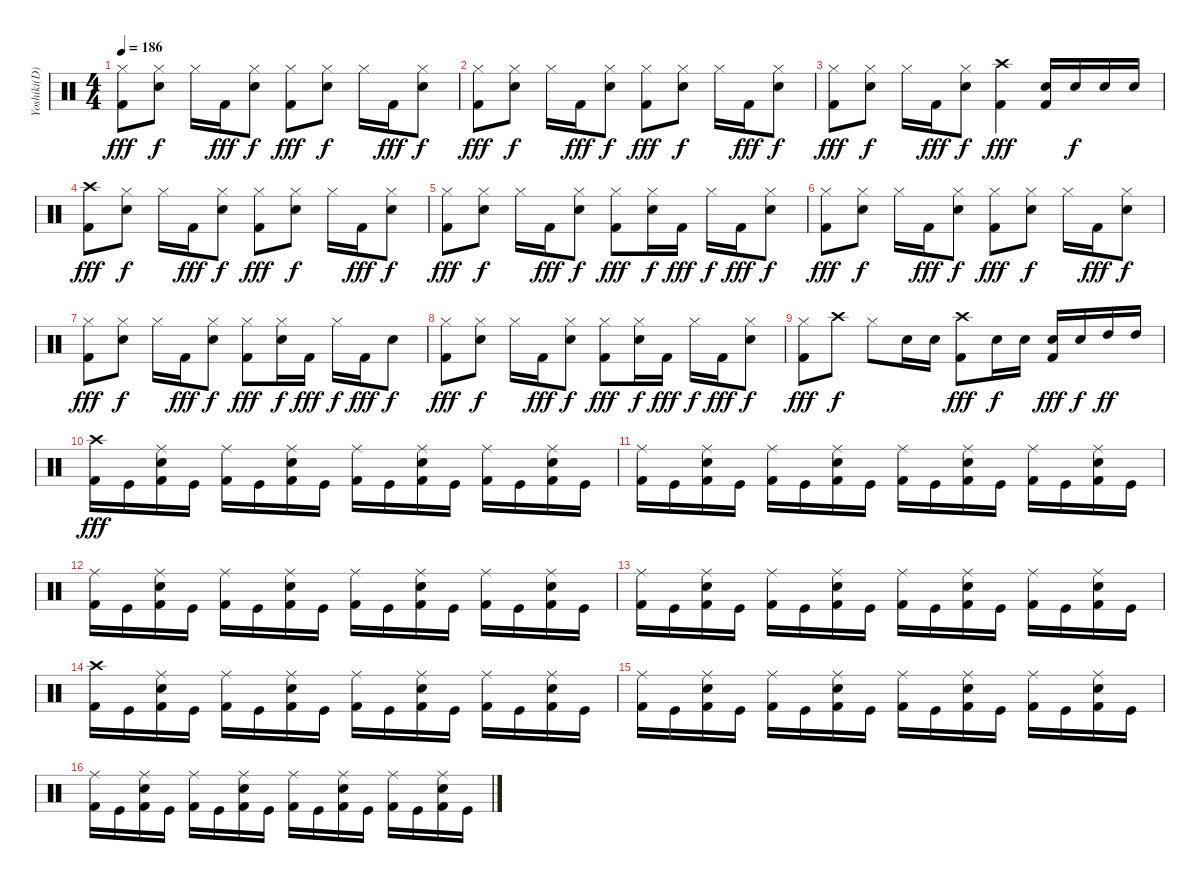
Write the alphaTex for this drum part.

\track ("Yoshiki(D)" "Yoshiki(D)") {instrument percussion}
\staff {score}
\articulation defaults
\ts (4 4)
\tempo 186
\clef neutral
\ks c
("Hi-Hat (closed)" "Kick (hit) 2").8{dy fff} ("Hi-Hat (closed)" "Electric Snare (hit)").8{dy f} "Hi-Hat (closed)".16 "Kick (hit) 2".16{dy fff} ("Hi-Hat (closed)" "Electric Snare (hit)").8{dy f} ("Hi-Hat (closed)" "Kick (hit) 2").8{dy fff} ("Hi-Hat (closed)" "Electric Snare (hit)").8{dy f} "Hi-Hat (closed)".16 "Kick (hit) 2".16{dy fff} ("Hi-Hat (closed)" "Electric Snare (hit)").8{dy f} |
("Hi-Hat (closed)" "Kick (hit) 2").8{dy fff} ("Hi-Hat (closed)" "Electric Snare (hit)").8{dy f} "Hi-Hat (closed)".16 "Kick (hit) 2".16{dy fff} ("Hi-Hat (closed)" "Electric Snare (hit)").8{dy f} ("Hi-Hat (closed)" "Kick (hit) 2").8{dy fff} ("Hi-Hat (closed)" "Electric Snare (hit)").8{dy f} "Hi-Hat (closed)".16 "Kick (hit) 2".16{dy fff} ("Hi-Hat (closed)" "Electric Snare (hit)").8{dy f} |
("Hi-Hat (closed)" "Kick (hit) 2").8{dy fff} ("Hi-Hat (closed)" "Electric Snare (hit)").8{dy f} "Hi-Hat (closed)".16 "Kick (hit) 2".16{dy fff} ("Hi-Hat (closed)" "Electric Snare (hit)").8{dy f} ("Crash high (hit)" "Kick (hit) 2").4{dy fff} ("Electric Snare (hit)" "Kick (hit) 2").16 "Electric Snare (hit)".16{dy f} "Electric Snare (hit)".16 "Electric Snare (hit)".16 |
("Crash high (hit)" "Kick (hit) 2").8{dy fff} ("Hi-Hat (closed)" "Electric Snare (hit)").8{dy f} "Hi-Hat (closed)".16 "Kick (hit) 2".16{dy fff} ("Hi-Hat (closed)" "Electric Snare (hit)").8{dy f} ("Hi-Hat (closed)" "Kick (hit) 2").8{dy fff} ("Hi-Hat (closed)" "Electric Snare (hit)").8{dy f} "Hi-Hat (closed)".16 "Kick (hit) 2".16{dy fff} ("Hi-Hat (closed)" "Electric Snare (hit)").8{dy f} |
("Hi-Hat (closed)" "Kick (hit) 2").8{dy fff} ("Hi-Hat (closed)" "Electric Snare (hit)").8{dy f} "Hi-Hat (closed)".16 "Kick (hit) 2".16{dy fff} ("Hi-Hat (closed)" "Electric Snare (hit)").8{dy f} ("Hi-Hat (closed)" "Kick (hit) 2").8{dy fff} ("Hi-Hat (closed)" "Electric Snare (hit)").16{dy f} "Kick (hit) 2".16{dy fff} "Hi-Hat (closed)".16{dy f} "Kick (hit) 2".16{dy fff} ("Hi-Hat (closed)" "Electric Snare (hit)").8{dy f} |
("Hi-Hat (closed)" "Kick (hit) 2").8{dy fff} ("Hi-Hat (closed)" "Electric Snare (hit)").8{dy f} "Hi-Hat (closed)".16 "Kick (hit) 2".16{dy fff} ("Hi-Hat (closed)" "Electric Snare (hit)").8{dy f} ("Hi-Hat (closed)" "Kick (hit) 2").8{dy fff} ("Hi-Hat (closed)" "Electric Snare (hit)").8{dy f} "Hi-Hat (closed)".16 "Kick (hit) 2".16{dy fff} ("Hi-Hat (closed)" "Electric Snare (hit)").8{dy f} |
("Hi-Hat (closed)" "Kick (hit) 2").8{dy fff} ("Hi-Hat (closed)" "Electric Snare (hit)").8{dy f} "Hi-Hat (closed)".16 "Kick (hit) 2".16{dy fff} ("Hi-Hat (closed)" "Electric Snare (hit)").8{dy f} ("Hi-Hat (closed)" "Kick (hit) 2").8{dy fff} ("Hi-Hat (closed)" "Electric Snare (hit)").16{dy f} "Kick (hit) 2".16{dy fff} "Hi-Hat (closed)".16{dy f} "Kick (hit) 2".16{dy fff} "Electric Snare (hit)".8{dy f} |
("Hi-Hat (closed)" "Kick (hit) 2").8{dy fff} ("Hi-Hat (closed)" "Electric Snare (hit)").8{dy f} "Hi-Hat (closed)".16 "Kick (hit) 2".16{dy fff} ("Hi-Hat (closed)" "Electric Snare (hit)").8{dy f} ("Hi-Hat (closed)" "Kick (hit) 2").8{dy fff} ("Hi-Hat (closed)" "Electric Snare (hit)").16{dy f} "Kick (hit) 2".16{dy fff} "Hi-Hat (closed)".16{dy f} "Kick (hit) 2".16{dy fff} ("Hi-Hat (closed)" "Electric Snare (hit)").8{dy f} |
("Hi-Hat (closed)" "Kick (hit) 2").8{dy fff} "Crash high (hit)".8{dy f} "Hi-Hat (closed)".8 "Electric Snare (hit)".16 "Electric Snare (hit)".16 ("Crash high (hit)" "Kick (hit) 2").8{dy fff} "Electric Snare (hit)".16{dy f} "Electric Snare (hit)".16 ("Electric Snare (hit)" "Kick (hit) 2").16{dy fff} "Electric Snare (hit)".16{dy f} "High Tom (hit)".16{dy ff} "High Tom (hit)".16 |
("Crash high (hit)" "Kick (hit) 2").16{dy fff} "Kick (hit)".16 ("Ride (middle)" "Electric Snare (hit)" "Kick (hit) 2").16 "Kick (hit)".16 ("Ride (middle)" "Kick (hit) 2").16 "Kick (hit)".16 ("Ride (middle)" "Electric Snare (hit)" "Kick (hit) 2").16 "Kick (hit)".16 ("Ride (middle)" "Kick (hit) 2").16 "Kick (hit)".16 ("Ride (middle)" "Electric Snare (hit)" "Kick (hit) 2").16 "Kick (hit)".16 ("Ride (middle)" "Kick (hit) 2").16 "Kick (hit)".16 ("Ride (middle)" "Electric Snare (hit)" "Kick (hit) 2").16 "Kick (hit)".16 |
("Ride (middle)" "Kick (hit) 2").16 "Kick (hit)".16 ("Ride (middle)" "Electric Snare (hit)" "Kick (hit) 2").16 "Kick (hit)".16 ("Ride (middle)" "Kick (hit) 2").16 "Kick (hit)".16 ("Ride (middle)" "Electric Snare (hit)" "Kick (hit) 2").16 "Kick (hit)".16 ("Ride (middle)" "Kick (hit) 2").16 "Kick (hit)".16 ("Ride (middle)" "Electric Snare (hit)" "Kick (hit) 2").16 "Kick (hit)".16 ("Ride (middle)" "Kick (hit) 2").16 "Kick (hit)".16 ("Ride (middle)" "Electric Snare (hit)" "Kick (hit) 2").16 "Kick (hit)".16 |
("Ride (middle)" "Kick (hit) 2").16 "Kick (hit)".16 ("Ride (middle)" "Electric Snare (hit)" "Kick (hit) 2").16 "Kick (hit)".16 ("Ride (middle)" "Kick (hit) 2").16 "Kick (hit)".16 ("Ride (middle)" "Electric Snare (hit)" "Kick (hit) 2").16 "Kick (hit)".16 ("Ride (middle)" "Kick (hit) 2").16 "Kick (hit)".16 ("Ride (middle)" "Electric Snare (hit)" "Kick (hit) 2").16 "Kick (hit)".16 ("Ride (middle)" "Kick (hit) 2").16 "Kick (hit)".16 ("Ride (middle)" "Electric Snare (hit)" "Kick (hit) 2").16 "Kick (hit)".16 |
("Ride (middle)" "Kick (hit) 2").16 "Kick (hit)".16 ("Ride (middle)" "Electric Snare (hit)" "Kick (hit) 2").16 "Kick (hit)".16 ("Ride (middle)" "Kick (hit) 2").16 "Kick (hit)".16 ("Ride (middle)" "Electric Snare (hit)" "Kick (hit) 2").16 "Kick (hit)".16 ("Ride (middle)" "Kick (hit) 2").16 "Kick (hit)".16 ("Ride (middle)" "Electric Snare (hit)" "Kick (hit) 2").16 "Kick (hit)".16 ("Ride (middle)" "Kick (hit) 2").16 "Kick (hit)".16 ("Ride (middle)" "Electric Snare (hit)" "Kick (hit) 2").16 "Kick (hit)".16 |
("Crash high (hit)" "Kick (hit) 2").16 "Kick (hit)".16 ("Ride (middle)" "Electric Snare (hit)" "Kick (hit) 2").16 "Kick (hit)".16 ("Ride (middle)" "Kick (hit) 2").16 "Kick (hit)".16 ("Ride (middle)" "Electric Snare (hit)" "Kick (hit) 2").16 "Kick (hit)".16 ("Ride (middle)" "Kick (hit) 2").16 "Kick (hit)".16 ("Ride (middle)" "Electric Snare (hit)" "Kick (hit) 2").16 "Kick (hit)".16 ("Ride (middle)" "Kick (hit) 2").16 "Kick (hit)".16 ("Ride (middle)" "Electric Snare (hit)" "Kick (hit) 2").16 "Kick (hit)".16 |
("Ride (middle)" "Kick (hit) 2").16 "Kick (hit)".16 ("Ride (middle)" "Electric Snare (hit)" "Kick (hit) 2").16 "Kick (hit)".16 ("Ride (middle)" "Kick (hit) 2").16 "Kick (hit)".16 ("Ride (middle)" "Electric Snare (hit)" "Kick (hit) 2").16 "Kick (hit)".16 ("Ride (middle)" "Kick (hit) 2").16 "Kick (hit)".16 ("Ride (middle)" "Electric Snare (hit)" "Kick (hit) 2").16 "Kick (hit)".16 ("Ride (middle)" "Kick (hit) 2").16 "Kick (hit)".16 ("Ride (middle)" "Electric Snare (hit)" "Kick (hit) 2").16 "Kick (hit)".16 |
("Ride (middle)" "Kick (hit) 2").16 "Kick (hit)".16 ("Ride (middle)" "Electric Snare (hit)" "Kick (hit) 2").16 "Kick (hit)".16 ("Ride (middle)" "Kick (hit) 2").16 "Kick (hit)".16 ("Ride (middle)" "Electric Snare (hit)" "Kick (hit) 2").16 "Kick (hit)".16 ("Ride (middle)" "Kick (hit) 2").16 "Kick (hit)".16 ("Ride (middle)" "Electric Snare (hit)" "Kick (hit) 2").16 "Kick (hit)".16 ("Ride (middle)" "Kick (hit) 2").16 "Kick (hit)".16 ("Ride (middle)" "Electric Snare (hit)" "Kick (hit) 2").16 "Kick (hit)".16
